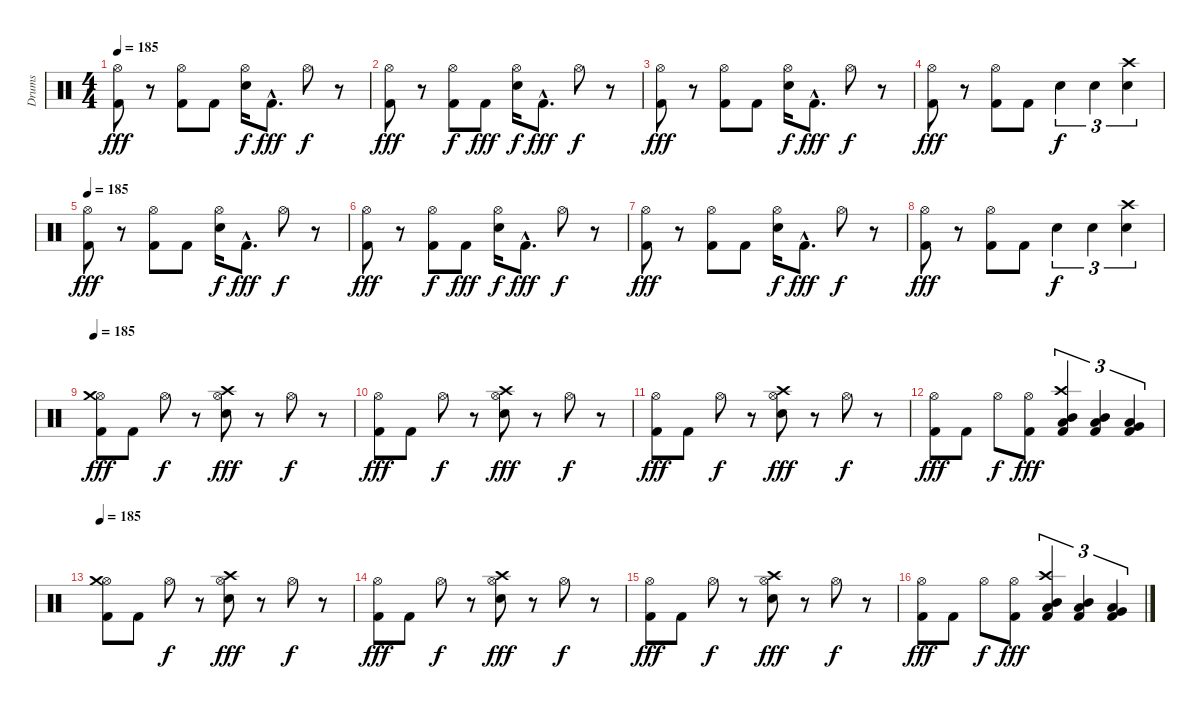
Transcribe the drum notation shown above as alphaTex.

\track ("Drums" "Drums") {instrument percussion}
\staff {score}
\articulation defaults
\ts (4 4)
\tempo 185
\clef neutral
\ks c
("Hi-Hat (open)" "Kick (hit) 2").8{dy fff} r.8 ("Hi-Hat (open)" "Kick (hit) 2").8 "Kick (hit) 2".8 ("Hi-Hat (open)" "Snare (hit) 2").16{dy f} "Kick (hit) 2"{hac}.8{d dy fff} "Hi-Hat (open)".8{dy f} r.8 |
("Hi-Hat (open)" "Kick (hit) 2").8{dy fff} r.8 ("Hi-Hat (open)" "Kick (hit) 2").8{dy f} "Kick (hit) 2".8{dy fff} ("Hi-Hat (open)" "Snare (hit) 2").16{dy f} "Kick (hit) 2"{hac}.8{d dy fff} "Hi-Hat (open)".8{dy f} r.8 |
("Hi-Hat (open)" "Kick (hit) 2").8{dy fff} r.8 ("Hi-Hat (open)" "Kick (hit) 2").8 "Kick (hit) 2".8 ("Hi-Hat (open)" "Snare (hit) 2").16{dy f} "Kick (hit) 2"{hac}.8{d dy fff} "Hi-Hat (open)".8{dy f} r.8 |
("Hi-Hat (open)" "Kick (hit) 2").8{dy fff} r.8 ("Hi-Hat (open)" "Kick (hit) 2").8 "Kick (hit) 2".8 "Snare (hit) 2".4{tu (3 2) dy f} "Snare (hit) 2".4{tu (3 2)} ("Crash high (hit)" "Snare (hit) 2").4{tu (3 2)} |
\tempo 185
("Hi-Hat (open)" "Kick (hit) 2").8{dy fff} r.8 ("Hi-Hat (open)" "Kick (hit) 2").8 "Kick (hit) 2".8 ("Hi-Hat (open)" "Snare (hit) 2").16{dy f} "Kick (hit) 2"{hac}.8{d dy fff} "Hi-Hat (open)".8{dy f} r.8 |
("Hi-Hat (open)" "Kick (hit) 2").8{dy fff} r.8 ("Hi-Hat (open)" "Kick (hit) 2").8{dy f} "Kick (hit) 2".8{dy fff} ("Hi-Hat (open)" "Snare (hit) 2").16{dy f} "Kick (hit) 2"{hac}.8{d dy fff} "Hi-Hat (open)".8{dy f} r.8 |
("Hi-Hat (open)" "Kick (hit) 2").8{dy fff} r.8 ("Hi-Hat (open)" "Kick (hit) 2").8 "Kick (hit) 2".8 ("Hi-Hat (open)" "Snare (hit) 2").16{dy f} "Kick (hit) 2"{hac}.8{d dy fff} "Hi-Hat (open)".8{dy f} r.8 |
("Hi-Hat (open)" "Kick (hit) 2").8{dy fff} r.8 ("Hi-Hat (open)" "Kick (hit) 2").8 "Kick (hit) 2".8 "Snare (hit) 2".4{tu (3 2) dy f} "Snare (hit) 2".4{tu (3 2)} ("Crash high (hit)" "Snare (hit) 2").4{tu (3 2)} |
\tempo 185
("Hi-Hat (open)" "Crash medium (hit)" "Kick (hit) 2").8{dy fff} "Kick (hit) 2".8 "Hi-Hat (open)".8{dy f} r.8 ("Hi-Hat (open)" "Crash high (hit)" "Snare (hit) 2").8{dy fff} r.8 "Hi-Hat (open)".8{dy f} r.8 |
("Hi-Hat (open)" "Kick (hit) 2").8{dy fff} "Kick (hit) 2".8 "Hi-Hat (open)".8{dy f} r.8 ("Hi-Hat (open)" "Crash high (hit)" "Snare (hit) 2").8{dy fff} r.8 "Hi-Hat (open)".8{dy f} r.8 |
("Hi-Hat (open)" "Kick (hit) 2").8{dy fff} "Kick (hit) 2".8 "Hi-Hat (open)".8{dy f} r.8 ("Hi-Hat (open)" "Crash high (hit)" "Snare (hit) 2").8{dy fff} r.8 "Hi-Hat (open)".8{dy f} r.8 |
("Hi-Hat (open)" "Kick (hit) 2").8{dy fff} "Kick (hit) 2".8 "Hi-Hat (open)".8{dy f} ("Hi-Hat (open)" "Kick (hit) 2").8{dy fff} ("Crash high (hit)" "Mid Tom (hit)" "Low Tom (hit)" "Kick (hit) 2").4{tu (3 2)} ("Mid Tom (hit)" "Low Tom (hit)" "Kick (hit) 2").4{tu (3 2)} ("Low Tom (hit)" "Very Low Tom (hit)" "Kick (hit) 2").4{tu (3 2)} |
\tempo 185
("Hi-Hat (open)" "Crash medium (hit)" "Kick (hit) 2").8 "Kick (hit) 2".8 "Hi-Hat (open)".8{dy f} r.8 ("Hi-Hat (open)" "Crash high (hit)" "Snare (hit) 2").8{dy fff} r.8 "Hi-Hat (open)".8{dy f} r.8 |
("Hi-Hat (open)" "Kick (hit) 2").8{dy fff} "Kick (hit) 2".8 "Hi-Hat (open)".8{dy f} r.8 ("Hi-Hat (open)" "Crash high (hit)" "Snare (hit) 2").8{dy fff} r.8 "Hi-Hat (open)".8{dy f} r.8 |
("Hi-Hat (open)" "Kick (hit) 2").8{dy fff} "Kick (hit) 2".8 "Hi-Hat (open)".8{dy f} r.8 ("Hi-Hat (open)" "Crash high (hit)" "Snare (hit) 2").8{dy fff} r.8 "Hi-Hat (open)".8{dy f} r.8 |
("Hi-Hat (open)" "Kick (hit) 2").8{dy fff} "Kick (hit) 2".8 "Hi-Hat (open)".8{dy f} ("Hi-Hat (open)" "Kick (hit) 2").8{dy fff} ("Crash high (hit)" "Mid Tom (hit)" "Low Tom (hit)" "Kick (hit) 2").4{tu (3 2)} ("Mid Tom (hit)" "Low Tom (hit)" "Kick (hit) 2").4{tu (3 2)} ("Low Tom (hit)" "Very Low Tom (hit)" "Kick (hit) 2").4{tu (3 2)}
